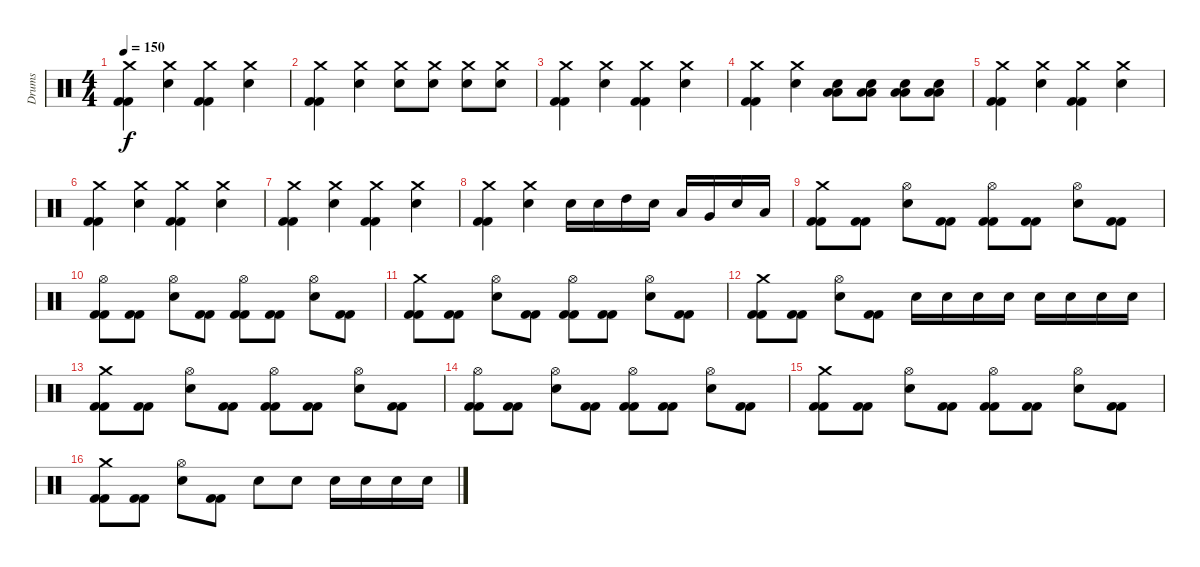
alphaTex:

\track ("Drums" "Drums") {instrument percussion}
\staff {score}
\articulation defaults
\ts (4 4)
\tempo 150
\clef neutral
\ks c
("Crash medium (hit)" "Kick (hit) 2" "Kick (hit) 2").4{dy f} ("Electric Snare (hit)" "Crash medium (hit)").4 ("Crash medium (hit)" "Kick (hit) 2" "Kick (hit) 2").4 ("Electric Snare (hit)" "Crash medium (hit)").4 |
("Crash medium (hit)" "Kick (hit) 2" "Kick (hit) 2").4 ("Electric Snare (hit)" "Crash medium (hit)").4 ("Crash medium (hit)" "Electric Snare (hit)").8 ("Crash medium (hit)" "Electric Snare (hit)").8 ("Electric Snare (hit)" "Crash medium (hit)").8 ("Crash medium (hit)" "Electric Snare (hit)").8 |
("Crash medium (hit)" "Kick (hit) 2" "Kick (hit) 2").4 ("Electric Snare (hit)" "Crash medium (hit)").4 ("Crash medium (hit)" "Kick (hit) 2" "Kick (hit) 2").4 ("Electric Snare (hit)" "Crash medium (hit)").4 |
("Crash medium (hit)" "Kick (hit) 2" "Kick (hit) 2").4 ("Electric Snare (hit)" "Crash medium (hit)").4 ("Electric Snare (hit)" "Low Tom (hit)" "Low Tom (hit)").8 ("Electric Snare (hit)" "Low Tom (hit)" "Low Tom (hit)").8 ("Electric Snare (hit)" "Low Tom (hit)" "Low Tom (hit)").8 ("Electric Snare (hit)" "Low Tom (hit)" "Low Tom (hit)").8 |
("Crash medium (hit)" "Kick (hit) 2" "Kick (hit) 2").4 ("Electric Snare (hit)" "Crash medium (hit)").4 ("Crash medium (hit)" "Kick (hit) 2" "Kick (hit) 2").4 ("Electric Snare (hit)" "Crash medium (hit)").4 |
("Crash medium (hit)" "Kick (hit) 2" "Kick (hit) 2").4 ("Electric Snare (hit)" "Crash medium (hit)").4 ("Crash medium (hit)" "Kick (hit) 2" "Kick (hit) 2").4 ("Electric Snare (hit)" "Crash medium (hit)").4 |
("Crash medium (hit)" "Kick (hit) 2" "Kick (hit) 2").4 ("Electric Snare (hit)" "Crash medium (hit)").4 ("Crash medium (hit)" "Kick (hit) 2" "Kick (hit) 2").4 ("Electric Snare (hit)" "Crash medium (hit)").4 |
("Crash medium (hit)" "Kick (hit) 2" "Kick (hit) 2").4 ("Electric Snare (hit)" "Crash medium (hit)").4 "Electric Snare (hit)".16 "Electric Snare (hit)".16 "High Tom (hit)".16 "Electric Snare (hit)".16 "Low Tom (hit)".16 "Very Low Tom (hit)".16 "Electric Snare (hit)".16 "Low Tom (hit)".16 |
("Crash medium (hit)" "Kick (hit) 2" "Kick (hit) 2").8 ("Kick (hit) 2" "Kick (hit) 2").8 ("Electric Snare (hit)" "Hi-Hat (open)").8 ("Kick (hit) 2" "Kick (hit) 2").8 ("Hi-Hat (open)" "Kick (hit) 2" "Kick (hit) 2").8 ("Kick (hit) 2" "Kick (hit) 2").8 ("Electric Snare (hit)" "Hi-Hat (open)").8 ("Kick (hit) 2" "Kick (hit) 2").8 |
("Hi-Hat (open)" "Kick (hit) 2" "Kick (hit) 2").8 ("Kick (hit) 2" "Kick (hit) 2").8 ("Electric Snare (hit)" "Hi-Hat (open)").8 ("Kick (hit) 2" "Kick (hit) 2").8 ("Hi-Hat (open)" "Kick (hit) 2" "Kick (hit) 2").8 ("Kick (hit) 2" "Kick (hit) 2").8 ("Electric Snare (hit)" "Hi-Hat (open)").8 ("Kick (hit) 2" "Kick (hit) 2").8 |
("Crash medium (hit)" "Kick (hit) 2" "Kick (hit) 2").8 ("Kick (hit) 2" "Kick (hit) 2").8 ("Electric Snare (hit)" "Hi-Hat (open)").8 ("Kick (hit) 2" "Kick (hit) 2").8 ("Hi-Hat (open)" "Kick (hit) 2" "Kick (hit) 2").8 ("Kick (hit) 2" "Kick (hit) 2").8 ("Electric Snare (hit)" "Hi-Hat (open)").8 ("Kick (hit) 2" "Kick (hit) 2").8 |
("Crash medium (hit)" "Kick (hit) 2" "Kick (hit) 2").8 ("Kick (hit) 2" "Kick (hit) 2").8 ("Electric Snare (hit)" "Hi-Hat (open)").8 ("Kick (hit) 2" "Kick (hit) 2").8 "Electric Snare (hit)".16 "Electric Snare (hit)".16 "Electric Snare (hit)".16 "Electric Snare (hit)".16 "Electric Snare (hit)".16 "Electric Snare (hit)".16 "Electric Snare (hit)".16 "Electric Snare (hit)".16 |
("Crash medium (hit)" "Kick (hit) 2" "Kick (hit) 2").8 ("Kick (hit) 2" "Kick (hit) 2").8 ("Electric Snare (hit)" "Hi-Hat (open)").8 ("Kick (hit) 2" "Kick (hit) 2").8 ("Hi-Hat (open)" "Kick (hit) 2" "Kick (hit) 2").8 ("Kick (hit) 2" "Kick (hit) 2").8 ("Electric Snare (hit)" "Hi-Hat (open)").8 ("Kick (hit) 2" "Kick (hit) 2").8 |
("Hi-Hat (open)" "Kick (hit) 2" "Kick (hit) 2").8 ("Kick (hit) 2" "Kick (hit) 2").8 ("Electric Snare (hit)" "Hi-Hat (open)").8 ("Kick (hit) 2" "Kick (hit) 2").8 ("Hi-Hat (open)" "Kick (hit) 2" "Kick (hit) 2").8 ("Kick (hit) 2" "Kick (hit) 2").8 ("Electric Snare (hit)" "Hi-Hat (open)").8 ("Kick (hit) 2" "Kick (hit) 2").8 |
("Crash medium (hit)" "Kick (hit) 2" "Kick (hit) 2").8 ("Kick (hit) 2" "Kick (hit) 2").8 ("Electric Snare (hit)" "Hi-Hat (open)").8 ("Kick (hit) 2" "Kick (hit) 2").8 ("Hi-Hat (open)" "Kick (hit) 2" "Kick (hit) 2").8 ("Kick (hit) 2" "Kick (hit) 2").8 ("Electric Snare (hit)" "Hi-Hat (open)").8 ("Kick (hit) 2" "Kick (hit) 2").8 |
("Crash medium (hit)" "Kick (hit) 2" "Kick (hit) 2").8 ("Kick (hit) 2" "Kick (hit) 2").8 ("Electric Snare (hit)" "Hi-Hat (open)").8 ("Kick (hit) 2" "Kick (hit) 2").8 "Electric Snare (hit)".8 "Electric Snare (hit)".8 "Electric Snare (hit)".16 "Electric Snare (hit)".16 "Electric Snare (hit)".16 "Electric Snare (hit)".16
